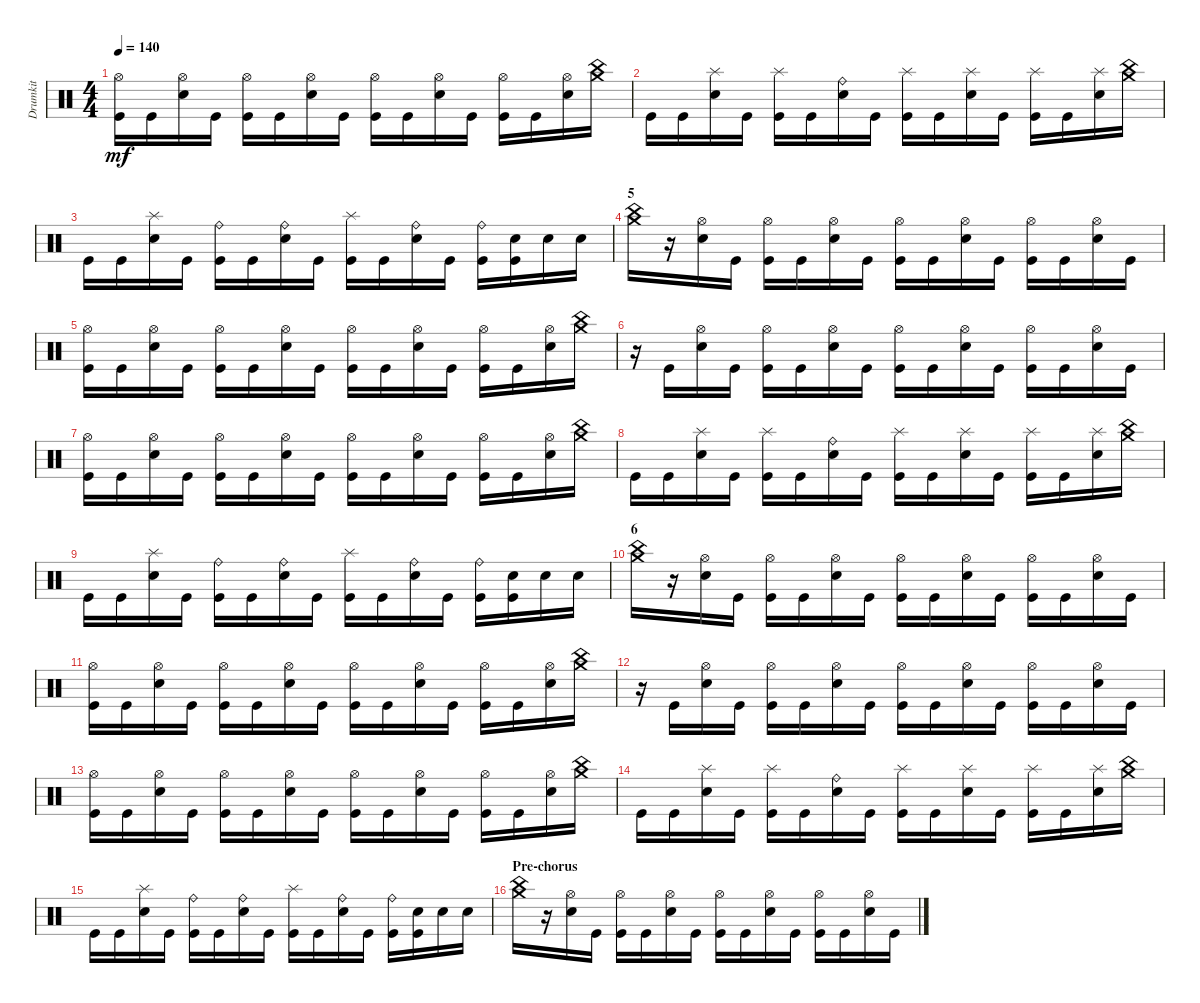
\track ("Drumkit" "Drumkit") {instrument percussion}
\staff {score}
\articulation defaults
\ts (4 4)
\tempo 140
\clef neutral
\ks c
("Kick (hit)" "Hi-Hat (open)").16{dy mf} "Kick (hit)".16 ("Snare (hit) 2" "Hi-Hat (open)").16 "Kick (hit)".16 ("Kick (hit)" "Hi-Hat (open)").16 "Kick (hit)".16 ("Snare (hit) 2" "Hi-Hat (open)").16 "Kick (hit)".16 ("Kick (hit)" "Hi-Hat (open)").16 "Kick (hit)".16 ("Snare (hit) 2" "Hi-Hat (open)").16 "Kick (hit)".16 ("Kick (hit)" "Hi-Hat (open)").16 "Kick (hit)".16 ("Snare (hit) 2" "Hi-Hat (open)").16 ("China (hit)" "Crash medium (hit)").16 |
"Kick (hit)".16 "Kick (hit)".16 ("Snare (hit) 2" "Splash (hit)").16 "Kick (hit)".16 ("Kick (hit)" "Splash (hit)").16 "Kick (hit)".16 ("Snare (hit) 2" "Ride (bell)").16 "Kick (hit)".16 ("Kick (hit)" "Splash (hit)").16 "Kick (hit)".16 ("Snare (hit) 2" "Splash (hit)").16 "Kick (hit)".16 ("Kick (hit)" "Splash (hit)").16 "Kick (hit)".16 ("Snare (hit) 2" "Splash (hit)").16 ("China (hit)" "Crash medium (hit)").16 |
"Kick (hit)".16 "Kick (hit)".16 ("Snare (hit) 2" "Splash (hit)").16 "Kick (hit)".16 ("Kick (hit)" "Ride (bell)").16 "Kick (hit)".16 ("Snare (hit) 2" "Ride (bell)").16 "Kick (hit)".16 ("Kick (hit)" "Splash (hit)").16 "Kick (hit)".16 ("Snare (hit) 2" "Ride (bell)").16 "Kick (hit)".16 ("Kick (hit)" "Ride (bell)").16 ("Kick (hit)" "Snare (hit) 2").16 "Snare (hit) 2".16 "Snare (hit) 2".16 |
\section ("" "5")
("China (hit)" "Crash medium (hit)").16 r.16 ("Snare (hit) 2" "Hi-Hat (open)").16 "Kick (hit)".16 ("Kick (hit)" "Hi-Hat (open)").16 "Kick (hit)".16 ("Snare (hit) 2" "Hi-Hat (open)").16 "Kick (hit)".16 ("Kick (hit)" "Hi-Hat (open)").16 "Kick (hit)".16 ("Snare (hit) 2" "Hi-Hat (open)").16 "Kick (hit)".16 ("Kick (hit)" "Hi-Hat (open)").16 "Kick (hit)".16 ("Snare (hit) 2" "Hi-Hat (open)").16 "Kick (hit)".16 |
("Kick (hit)" "Hi-Hat (open)").16 "Kick (hit)".16 ("Snare (hit) 2" "Hi-Hat (open)").16 "Kick (hit)".16 ("Kick (hit)" "Hi-Hat (open)").16 "Kick (hit)".16 ("Snare (hit) 2" "Hi-Hat (open)").16 "Kick (hit)".16 ("Kick (hit)" "Hi-Hat (open)").16 "Kick (hit)".16 ("Snare (hit) 2" "Hi-Hat (open)").16 "Kick (hit)".16 ("Kick (hit)" "Hi-Hat (open)").16 "Kick (hit)".16 ("Snare (hit) 2" "Hi-Hat (open)").16 ("China (hit)" "Crash medium (hit)").16 |
r.16 "Kick (hit)".16 ("Snare (hit) 2" "Hi-Hat (open)").16 "Kick (hit)".16 ("Kick (hit)" "Hi-Hat (open)").16 "Kick (hit)".16 ("Snare (hit) 2" "Hi-Hat (open)").16 "Kick (hit)".16 ("Kick (hit)" "Hi-Hat (open)").16 "Kick (hit)".16 ("Snare (hit) 2" "Hi-Hat (open)").16 "Kick (hit)".16 ("Kick (hit)" "Hi-Hat (open)").16 "Kick (hit)".16 ("Snare (hit) 2" "Hi-Hat (open)").16 "Kick (hit)".16 |
("Kick (hit)" "Hi-Hat (open)").16 "Kick (hit)".16 ("Snare (hit) 2" "Hi-Hat (open)").16 "Kick (hit)".16 ("Kick (hit)" "Hi-Hat (open)").16 "Kick (hit)".16 ("Snare (hit) 2" "Hi-Hat (open)").16 "Kick (hit)".16 ("Kick (hit)" "Hi-Hat (open)").16 "Kick (hit)".16 ("Snare (hit) 2" "Hi-Hat (open)").16 "Kick (hit)".16 ("Kick (hit)" "Hi-Hat (open)").16 "Kick (hit)".16 ("Snare (hit) 2" "Hi-Hat (open)").16 ("China (hit)" "Crash medium (hit)").16 |
"Kick (hit)".16 "Kick (hit)".16 ("Snare (hit) 2" "Splash (hit)").16 "Kick (hit)".16 ("Kick (hit)" "Splash (hit)").16 "Kick (hit)".16 ("Snare (hit) 2" "Ride (bell)").16 "Kick (hit)".16 ("Kick (hit)" "Splash (hit)").16 "Kick (hit)".16 ("Snare (hit) 2" "Splash (hit)").16 "Kick (hit)".16 ("Kick (hit)" "Splash (hit)").16 "Kick (hit)".16 ("Snare (hit) 2" "Splash (hit)").16 ("China (hit)" "Crash medium (hit)").16 |
"Kick (hit)".16 "Kick (hit)".16 ("Snare (hit) 2" "Splash (hit)").16 "Kick (hit)".16 ("Kick (hit)" "Ride (bell)").16 "Kick (hit)".16 ("Snare (hit) 2" "Ride (bell)").16 "Kick (hit)".16 ("Kick (hit)" "Splash (hit)").16 "Kick (hit)".16 ("Snare (hit) 2" "Ride (bell)").16 "Kick (hit)".16 ("Kick (hit)" "Ride (bell)").16 ("Kick (hit)" "Snare (hit) 2").16 "Snare (hit) 2".16 "Snare (hit) 2".16 |
\section ("" "6")
("China (hit)" "Crash medium (hit)").16 r.16 ("Snare (hit) 2" "Hi-Hat (open)").16 "Kick (hit)".16 ("Kick (hit)" "Hi-Hat (open)").16 "Kick (hit)".16 ("Snare (hit) 2" "Hi-Hat (open)").16 "Kick (hit)".16 ("Kick (hit)" "Hi-Hat (open)").16 "Kick (hit)".16 ("Snare (hit) 2" "Hi-Hat (open)").16 "Kick (hit)".16 ("Kick (hit)" "Hi-Hat (open)").16 "Kick (hit)".16 ("Snare (hit) 2" "Hi-Hat (open)").16 "Kick (hit)".16 |
("Kick (hit)" "Hi-Hat (open)").16 "Kick (hit)".16 ("Snare (hit) 2" "Hi-Hat (open)").16 "Kick (hit)".16 ("Kick (hit)" "Hi-Hat (open)").16 "Kick (hit)".16 ("Snare (hit) 2" "Hi-Hat (open)").16 "Kick (hit)".16 ("Kick (hit)" "Hi-Hat (open)").16 "Kick (hit)".16 ("Snare (hit) 2" "Hi-Hat (open)").16 "Kick (hit)".16 ("Kick (hit)" "Hi-Hat (open)").16 "Kick (hit)".16 ("Snare (hit) 2" "Hi-Hat (open)").16 ("China (hit)" "Crash medium (hit)").16 |
r.16 "Kick (hit)".16 ("Snare (hit) 2" "Hi-Hat (open)").16 "Kick (hit)".16 ("Kick (hit)" "Hi-Hat (open)").16 "Kick (hit)".16 ("Snare (hit) 2" "Hi-Hat (open)").16 "Kick (hit)".16 ("Kick (hit)" "Hi-Hat (open)").16 "Kick (hit)".16 ("Snare (hit) 2" "Hi-Hat (open)").16 "Kick (hit)".16 ("Kick (hit)" "Hi-Hat (open)").16 "Kick (hit)".16 ("Snare (hit) 2" "Hi-Hat (open)").16 "Kick (hit)".16 |
("Kick (hit)" "Hi-Hat (open)").16 "Kick (hit)".16 ("Snare (hit) 2" "Hi-Hat (open)").16 "Kick (hit)".16 ("Kick (hit)" "Hi-Hat (open)").16 "Kick (hit)".16 ("Snare (hit) 2" "Hi-Hat (open)").16 "Kick (hit)".16 ("Kick (hit)" "Hi-Hat (open)").16 "Kick (hit)".16 ("Snare (hit) 2" "Hi-Hat (open)").16 "Kick (hit)".16 ("Kick (hit)" "Hi-Hat (open)").16 "Kick (hit)".16 ("Snare (hit) 2" "Hi-Hat (open)").16 ("China (hit)" "Crash medium (hit)").16 |
"Kick (hit)".16 "Kick (hit)".16 ("Snare (hit) 2" "Splash (hit)").16 "Kick (hit)".16 ("Kick (hit)" "Splash (hit)").16 "Kick (hit)".16 ("Snare (hit) 2" "Ride (bell)").16 "Kick (hit)".16 ("Kick (hit)" "Splash (hit)").16 "Kick (hit)".16 ("Snare (hit) 2" "Splash (hit)").16 "Kick (hit)".16 ("Kick (hit)" "Splash (hit)").16 "Kick (hit)".16 ("Snare (hit) 2" "Splash (hit)").16 ("China (hit)" "Crash medium (hit)").16 |
"Kick (hit)".16 "Kick (hit)".16 ("Snare (hit) 2" "Splash (hit)").16 "Kick (hit)".16 ("Kick (hit)" "Ride (bell)").16 "Kick (hit)".16 ("Snare (hit) 2" "Ride (bell)").16 "Kick (hit)".16 ("Kick (hit)" "Splash (hit)").16 "Kick (hit)".16 ("Snare (hit) 2" "Ride (bell)").16 "Kick (hit)".16 ("Kick (hit)" "Ride (bell)").16 ("Kick (hit)" "Snare (hit) 2").16 "Snare (hit) 2".16 "Snare (hit) 2".16 |
\section ("" "Pre-chorus")
("China (hit)" "Crash medium (hit)").16 r.16 ("Snare (hit) 2" "Hi-Hat (open)").16 "Kick (hit)".16 ("Kick (hit)" "Hi-Hat (open)").16 "Kick (hit)".16 ("Snare (hit) 2" "Hi-Hat (open)").16 "Kick (hit)".16 ("Kick (hit)" "Hi-Hat (open)").16 "Kick (hit)".16 ("Snare (hit) 2" "Hi-Hat (open)").16 "Kick (hit)".16 ("Kick (hit)" "Hi-Hat (open)").16 "Kick (hit)".16 ("Snare (hit) 2" "Hi-Hat (open)").16 "Kick (hit)".16
